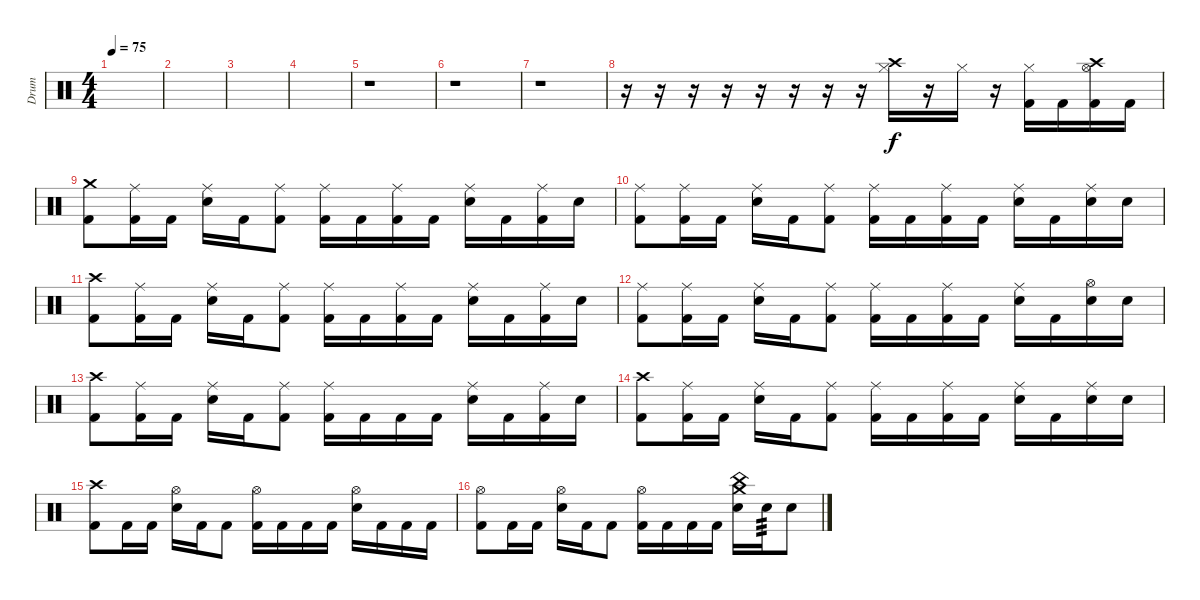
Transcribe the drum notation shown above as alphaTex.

\track ("Drum" "Drum") {instrument percussion}
\staff {score}
\articulation defaults
\ts (4 4)
\tempo 75
\clef neutral
\ks c
|
|
|
|
r.1 |
r.1 |
r.1 |
r.16 r.16 r.16 r.16 r.16 r.16 r.16 r.16 ("Crash high (hit)" "Hi-Hat (closed)").16 r.16 "Hi-Hat (closed)".16 r.16 ("Hi-Hat (closed)" "Kick (hit) 2"{tr (36 32)}).16 "Kick (hit) 2".16 ("Crash high (hit)" "Hi-Hat (open)" "Kick (hit) 2").16 "Kick (hit) 2".16 |
("Crash medium (hit)" "Kick (hit) 2").8 ("Ride (middle)" "Kick (hit) 2").16 "Kick (hit) 2".16 ("Ride (middle)" "Snare (hit) 2").16 "Kick (hit) 2".16 ("Ride (middle)" "Kick (hit) 2").8 ("Ride (middle)" "Kick (hit) 2"{x}).16 "Kick (hit) 2".16 ("Ride (middle)" "Kick (hit) 2").16 "Kick (hit) 2".16 ("Ride (middle)" "Snare (hit) 2").16 "Kick (hit) 2".16 ("Ride (middle)" "Kick (hit) 2").16 "Snare (hit) 2".16 |
("Ride (middle)" "Kick (hit) 2").8 ("Ride (middle)" "Kick (hit) 2").16 "Kick (hit) 2".16 ("Ride (middle)" "Snare (hit) 2").16 "Kick (hit) 2".16 ("Ride (middle)" "Kick (hit) 2").8 ("Ride (middle)" "Kick (hit) 2"{x}).16 "Kick (hit) 2".16 ("Ride (middle)" "Kick (hit) 2").16 "Kick (hit) 2".16 ("Ride (middle)" "Snare (hit) 2").16 "Kick (hit) 2".16 ("Ride (middle)" "Snare (hit) 2").16 "Snare (hit) 2".16 |
("Crash high (hit)" "Kick (hit) 2").8 ("Ride (middle)" "Kick (hit) 2").16 "Kick (hit) 2".16 ("Ride (middle)" "Snare (hit) 2").16 "Kick (hit) 2".16 ("Ride (middle)" "Kick (hit) 2").8 ("Ride (middle)" "Kick (hit) 2"{x}).16 "Kick (hit) 2".16 ("Ride (middle)" "Kick (hit) 2").16 "Kick (hit) 2".16 ("Ride (middle)" "Snare (hit) 2").16 "Kick (hit) 2".16 ("Ride (middle)" "Kick (hit) 2").16 "Snare (hit) 2".16 |
("Ride (middle)" "Kick (hit) 2").8 ("Ride (middle)" "Kick (hit) 2").16 "Kick (hit) 2".16 ("Ride (middle)" "Snare (hit) 2").16 "Kick (hit) 2".16 ("Ride (middle)" "Kick (hit) 2").8 ("Ride (middle)" "Kick (hit) 2"{x}).16 "Kick (hit) 2".16 ("Ride (middle)" "Kick (hit) 2").16 "Kick (hit) 2".16 ("Ride (middle)"{tr (51 16)} "Snare (hit) 2").16 "Kick (hit) 2".16 ("Hi-Hat (open)" "Snare (hit) 2").16 "Snare (hit) 2".16 |
("Crash high (hit)" "Kick (hit) 2").8 ("Ride (middle)" "Kick (hit) 2").16 "Kick (hit) 2".16 ("Ride (middle)" "Snare (hit) 2").16 "Kick (hit) 2".16 ("Ride (middle)" "Kick (hit) 2").8 ("Ride (middle)" "Kick (hit) 2"{x}).16 "Kick (hit) 2".16 "Kick (hit) 2".16 "Kick (hit) 2".16 ("Ride (middle)" "Snare (hit) 2").16 "Kick (hit) 2".16 ("Ride (middle)" "Kick (hit) 2").16 "Snare (hit) 2".16 |
("Crash high (hit)" "Kick (hit) 2").8 ("Ride (middle)" "Kick (hit) 2").16 "Kick (hit) 2".16 ("Ride (middle)" "Snare (hit) 2").16 "Kick (hit) 2".16 ("Ride (middle)" "Kick (hit) 2").8 ("Ride (middle)" "Kick (hit) 2"{x}).16 "Kick (hit) 2".16 ("Ride (middle)" "Kick (hit) 2").16 "Kick (hit) 2".16 ("Ride (middle)" "Snare (hit) 2").16 "Kick (hit) 2".16 ("Ride (middle)" "Snare (hit) 2").16 "Snare (hit) 2".16 |
("Crash high (hit)" "Kick (hit) 2").8 "Kick (hit) 2".16 "Kick (hit) 2".16 ("Hi-Hat (open)" "Snare (hit) 2").16 "Kick (hit) 2".16 "Kick (hit) 2".8 ("Hi-Hat (open)" "Kick (hit) 2"{x}).16 "Kick (hit) 2".16 "Kick (hit) 2".16 "Kick (hit) 2".16 ("Hi-Hat (open)" "Snare (hit) 2").16 "Kick (hit) 2".16 "Kick (hit) 2".16 "Kick (hit) 2".16 |
("Hi-Hat (open)" "Kick (hit) 2").8 "Kick (hit) 2".16 "Kick (hit) 2".16 ("Hi-Hat (open)" "Snare (hit) 2").16 "Kick (hit) 2".16 "Kick (hit) 2".8 ("Hi-Hat (open)" "Kick (hit) 2").16 "Kick (hit) 2".16 "Kick (hit) 2".16 "Kick (hit) 2".16 ("Crash medium (hit)" "China (hit)" "Snare (hit) 2").16 "Snare (hit) 2".16{tp 3} "Snare (hit) 2".8
